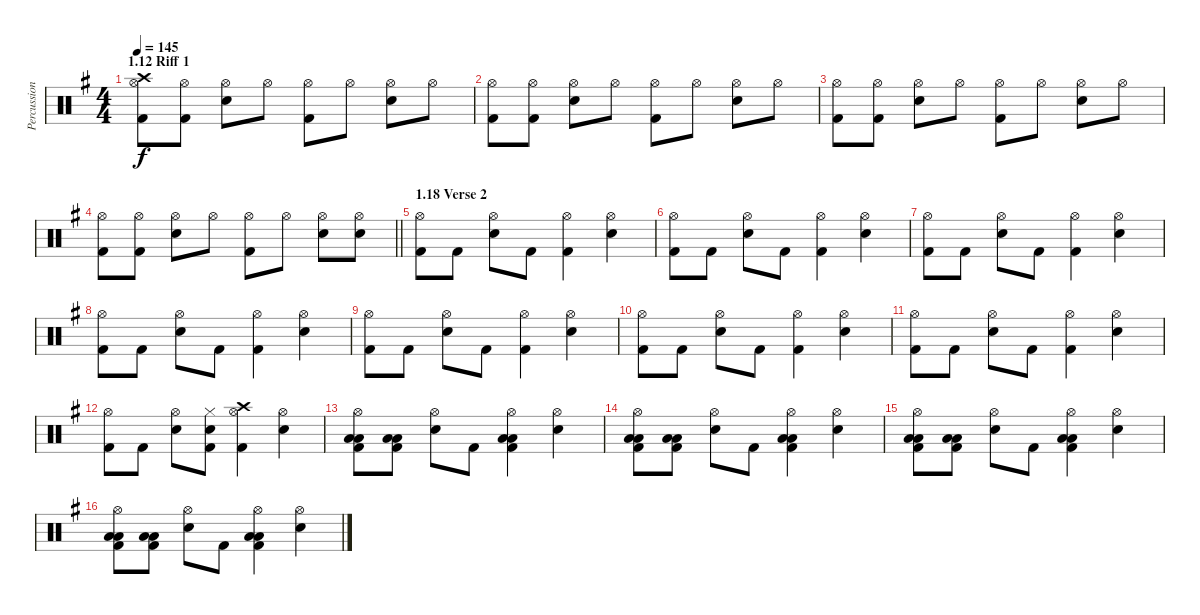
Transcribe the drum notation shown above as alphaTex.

\track ("Percussion" "Percussion") {instrument percussion}
\staff {score}
\articulation defaults
\ts (4 4)
\section ("" "1.12 Riff 1 ")
\tempo 145
\clef neutral
\ks eminor
("Crash high (hit)" "Hi-Hat (open)" "Kick (hit) 2").8{dy f} ("Hi-Hat (open)" "Kick (hit) 2").8 ("Hi-Hat (open)" "Electric Snare (hit)").8 "Hi-Hat (open)".8 ("Hi-Hat (open)" "Kick (hit) 2").8 "Hi-Hat (open)".8 ("Hi-Hat (open)" "Electric Snare (hit)").8 "Hi-Hat (open)".8 |
("Hi-Hat (open)" "Kick (hit) 2").8 ("Hi-Hat (open)" "Kick (hit) 2").8 ("Hi-Hat (open)" "Electric Snare (hit)").8 "Hi-Hat (open)".8 ("Hi-Hat (open)" "Kick (hit) 2").8 "Hi-Hat (open)".8 ("Hi-Hat (open)" "Electric Snare (hit)").8 "Hi-Hat (open)".8 |
("Hi-Hat (open)" "Kick (hit) 2").8 ("Hi-Hat (open)" "Kick (hit) 2").8 ("Hi-Hat (open)" "Electric Snare (hit)").8 "Hi-Hat (open)".8 ("Hi-Hat (open)" "Kick (hit) 2").8 "Hi-Hat (open)".8 ("Hi-Hat (open)" "Electric Snare (hit)").8 "Hi-Hat (open)".8 |
\barLineRight lightlight
("Hi-Hat (open)" "Kick (hit) 2").8 ("Hi-Hat (open)" "Kick (hit) 2").8 ("Hi-Hat (open)" "Electric Snare (hit)").8 "Hi-Hat (open)".8 ("Hi-Hat (open)" "Kick (hit) 2").8 "Hi-Hat (open)".8 ("Hi-Hat (open)" "Electric Snare (hit)").8 ("Hi-Hat (open)" "Electric Snare (hit)").8 |
\section ("" "1.18 Verse 2")
("Hi-Hat (open)" "Kick (hit) 2").8 "Kick (hit) 2".8 ("Hi-Hat (open)" "Electric Snare (hit)").8 "Kick (hit) 2".8 ("Hi-Hat (open)" "Kick (hit) 2").4 ("Hi-Hat (open)" "Electric Snare (hit)").4 |
("Hi-Hat (open)" "Kick (hit) 2").8 "Kick (hit) 2".8 ("Hi-Hat (open)" "Electric Snare (hit)").8 "Kick (hit) 2".8 ("Hi-Hat (open)" "Kick (hit) 2").4 ("Hi-Hat (open)" "Electric Snare (hit)").4 |
("Hi-Hat (open)" "Kick (hit) 2").8 "Kick (hit) 2".8 ("Hi-Hat (open)" "Electric Snare (hit)").8 "Kick (hit) 2".8 ("Hi-Hat (open)" "Kick (hit) 2").4 ("Hi-Hat (open)" "Electric Snare (hit)").4 |
("Hi-Hat (open)" "Kick (hit) 2").8 "Kick (hit) 2".8 ("Hi-Hat (open)" "Electric Snare (hit)").8 "Kick (hit) 2".8 ("Hi-Hat (open)" "Kick (hit) 2").4 ("Hi-Hat (open)" "Electric Snare (hit)").4 |
("Hi-Hat (open)" "Kick (hit) 2").8 "Kick (hit) 2".8 ("Hi-Hat (open)" "Electric Snare (hit)").8 "Kick (hit) 2".8 ("Hi-Hat (open)" "Kick (hit) 2").4 ("Hi-Hat (open)" "Electric Snare (hit)").4 |
("Hi-Hat (open)" "Kick (hit) 2").8 "Kick (hit) 2".8 ("Hi-Hat (open)" "Electric Snare (hit)").8 "Kick (hit) 2".8 ("Hi-Hat (open)" "Kick (hit) 2").4 ("Hi-Hat (open)" "Electric Snare (hit)").4 |
("Hi-Hat (open)" "Kick (hit) 2").8 "Kick (hit) 2".8 ("Hi-Hat (open)" "Electric Snare (hit)").8 "Kick (hit) 2".8 ("Hi-Hat (open)" "Kick (hit) 2").4 ("Hi-Hat (open)" "Electric Snare (hit)").4 |
("Hi-Hat (open)" "Kick (hit) 2").8 "Kick (hit) 2".8 ("Hi-Hat (open)" "Electric Snare (hit)").8 ("Hi-Hat (closed)" "Electric Snare (hit)" "Kick (hit) 2").8 ("Crash high (hit)" "Hi-Hat (open)" "Kick (hit) 2").4 ("Hi-Hat (open)" "Electric Snare (hit)").4 |
("Hi-Hat (open)" "Low Tom (hit)" "Low Floor Tom (hit)" "Kick (hit) 2").8 ("Low Tom (hit)" "Low Floor Tom (hit)" "Kick (hit) 2").8 ("Hi-Hat (open)" "Electric Snare (hit)").8 "Kick (hit) 2".8 ("Hi-Hat (open)" "Low Tom (hit)" "Low Floor Tom (hit)" "Kick (hit) 2").4 ("Hi-Hat (open)" "Electric Snare (hit)").4 |
("Hi-Hat (open)" "Low Tom (hit)" "Low Floor Tom (hit)" "Kick (hit) 2").8 ("Low Tom (hit)" "Low Floor Tom (hit)" "Kick (hit) 2").8 ("Hi-Hat (open)" "Electric Snare (hit)").8 "Kick (hit) 2".8 ("Hi-Hat (open)" "Low Tom (hit)" "Low Floor Tom (hit)" "Kick (hit) 2").4 ("Hi-Hat (open)" "Electric Snare (hit)").4 |
("Hi-Hat (open)" "Low Tom (hit)" "Low Floor Tom (hit)" "Kick (hit) 2").8 ("Low Tom (hit)" "Low Floor Tom (hit)" "Kick (hit) 2").8 ("Hi-Hat (open)" "Electric Snare (hit)").8 "Kick (hit) 2".8 ("Hi-Hat (open)" "Low Tom (hit)" "Low Floor Tom (hit)" "Kick (hit) 2").4 ("Hi-Hat (open)" "Electric Snare (hit)").4 |
("Hi-Hat (open)" "Low Tom (hit)" "Low Floor Tom (hit)" "Kick (hit) 2").8 ("Low Tom (hit)" "Low Floor Tom (hit)" "Kick (hit) 2").8 ("Hi-Hat (open)" "Electric Snare (hit)").8 "Kick (hit) 2".8 ("Hi-Hat (open)" "Low Tom (hit)" "Low Floor Tom (hit)" "Kick (hit) 2").4 ("Hi-Hat (open)" "Electric Snare (hit)").4
